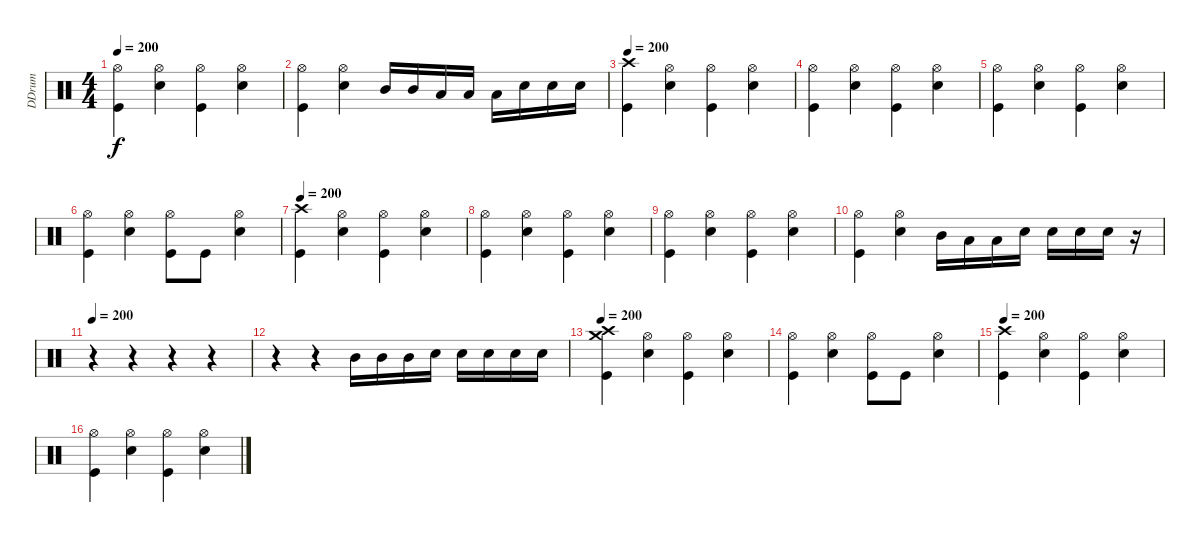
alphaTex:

\track ("DDrum" "DDrum") {instrument percussion}
\staff {score}
\articulation defaults
\ts (4 4)
\tempo 200
\clef neutral
\ks c
("Hi-Hat (open)" "Kick (hit)").4{dy f} ("Hi-Hat (open)" "Electric Snare (hit)").4 ("Hi-Hat (open)" "Kick (hit)").4 ("Hi-Hat (open)" "Electric Snare (hit)").4 |
("Hi-Hat (open)" "Kick (hit)").4 ("Hi-Hat (open)" "Electric Snare (hit)").4 "Mid Tom (hit)".16 "Mid Tom (hit)".16 "Low Tom (hit)".16 "Low Tom (hit)".16 "Low Tom (hit)".16 "Electric Snare (hit)".16 "Electric Snare (hit)".16 "Electric Snare (hit)".16 |
\tempo 200
("Crash high (hit)" "Kick (hit)").4 ("Hi-Hat (open)" "Electric Snare (hit)").4 ("Hi-Hat (open)" "Kick (hit)").4 ("Hi-Hat (open)" "Electric Snare (hit)").4 |
("Hi-Hat (open)" "Kick (hit)").4 ("Hi-Hat (open)" "Electric Snare (hit)").4 ("Hi-Hat (open)" "Kick (hit)").4 ("Hi-Hat (open)" "Electric Snare (hit)").4 |
("Hi-Hat (open)" "Kick (hit)").4 ("Hi-Hat (open)" "Electric Snare (hit)").4 ("Hi-Hat (open)" "Kick (hit)").4 ("Hi-Hat (open)" "Electric Snare (hit)").4 |
("Hi-Hat (open)" "Kick (hit)").4 ("Hi-Hat (open)" "Electric Snare (hit)").4 ("Hi-Hat (open)" "Kick (hit)").8 "Kick (hit)".8 ("Hi-Hat (open)" "Electric Snare (hit)").4 |
\tempo 200
("Crash high (hit)" "Kick (hit)").4 ("Hi-Hat (open)" "Electric Snare (hit)").4 ("Hi-Hat (open)" "Kick (hit)").4 ("Hi-Hat (open)" "Electric Snare (hit)").4 |
("Hi-Hat (open)" "Kick (hit)").4 ("Hi-Hat (open)" "Electric Snare (hit)").4 ("Hi-Hat (open)" "Kick (hit)").4 ("Hi-Hat (open)" "Electric Snare (hit)").4 |
("Hi-Hat (open)" "Kick (hit)").4 ("Hi-Hat (open)" "Electric Snare (hit)").4 ("Hi-Hat (open)" "Kick (hit)").4 ("Hi-Hat (open)" "Electric Snare (hit)").4 |
("Hi-Hat (open)" "Kick (hit)").4 ("Hi-Hat (open)" "Electric Snare (hit)").4 "Mid Tom (hit)".16 "Low Tom (hit)".16 "Low Tom (hit)".16 "Electric Snare (hit)".16 "Electric Snare (hit)".16 "Electric Snare (hit)".16 "Electric Snare (hit)".16 r.16 |
\tempo 200
r.4 r.4 r.4 r.4 |
r.4 r.4 "Mid Tom (hit)".16 "Mid Tom (hit)".16 "Mid Tom (hit)".16 "Electric Snare (hit)".16 "Electric Snare (hit)".16 "Electric Snare (hit)".16 "Electric Snare (hit)".16 "Electric Snare (hit)".16 |
\tempo 200
("Crash medium (hit)" "Crash high (hit)" "Kick (hit)").4 ("Hi-Hat (open)" "Electric Snare (hit)").4 ("Hi-Hat (open)" "Kick (hit)").4 ("Hi-Hat (open)" "Electric Snare (hit)").4 |
("Hi-Hat (open)" "Kick (hit)").4 ("Hi-Hat (open)" "Electric Snare (hit)").4 ("Hi-Hat (open)" "Kick (hit)").8 "Kick (hit)".8 ("Hi-Hat (open)" "Electric Snare (hit)").4 |
\tempo 200
("Crash high (hit)" "Kick (hit)").4 ("Hi-Hat (open)" "Electric Snare (hit)").4 ("Hi-Hat (open)" "Kick (hit)").4 ("Hi-Hat (open)" "Electric Snare (hit)").4 |
("Hi-Hat (open)" "Kick (hit)").4 ("Hi-Hat (open)" "Electric Snare (hit)").4 ("Hi-Hat (open)" "Kick (hit)").4 ("Hi-Hat (open)" "Electric Snare (hit)").4
